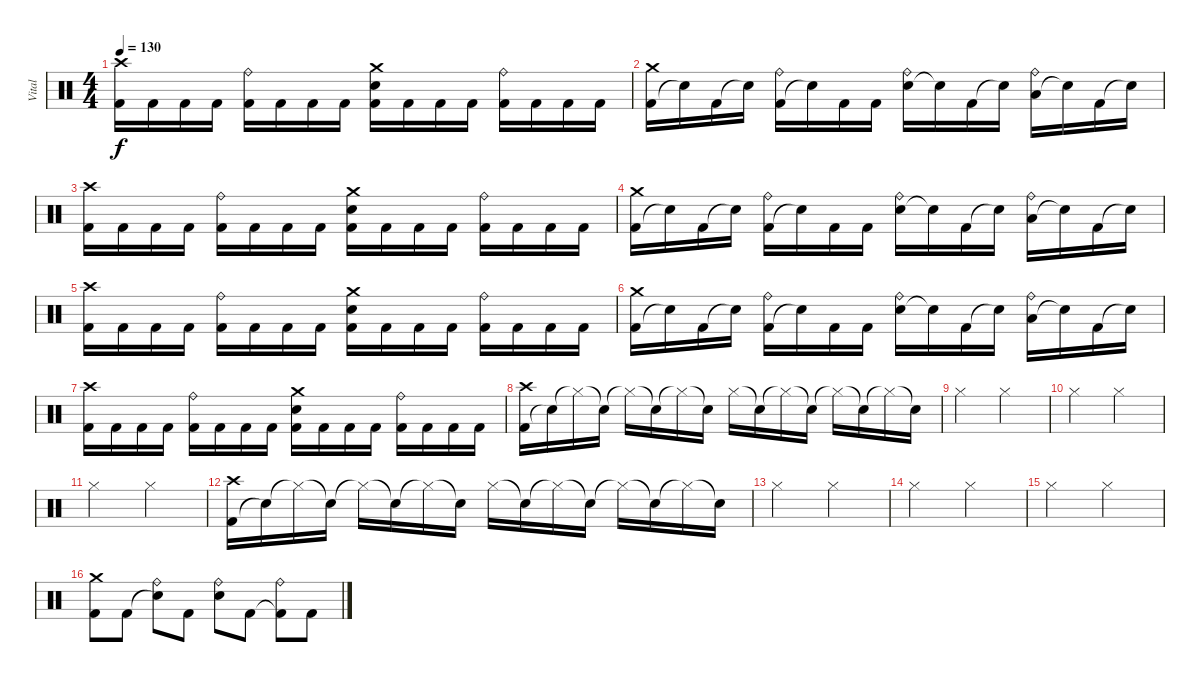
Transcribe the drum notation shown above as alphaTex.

\track ("Vital" "Vital") {instrument percussion}
\staff {score}
\articulation defaults
\ts (4 4)
\tempo 130
\clef neutral
\ks c
("Kick (hit) 2" "Crash high (hit)").16{dy f} "Kick (hit) 2".16 "Kick (hit) 2".16 "Kick (hit) 2".16 ("Kick (hit) 2" "Ride (bell)").16 "Kick (hit) 2".16 "Kick (hit) 2".16 "Kick (hit) 2".16 ("Kick (hit) 2" "Snare (hit) 2" "Crash medium (hit)").16 "Kick (hit) 2".16 "Kick (hit) 2".16 "Kick (hit) 2".16 ("Kick (hit) 2" "Ride (bell)").16 "Kick (hit) 2".16 "Kick (hit) 2".16 "Kick (hit) 2".16 |
("Kick (hit) 2" "Crash medium (hit)").16 "Snare (hit)"{t}.16 "Kick (hit) 2".16 "Snare (hit)"{t}.16 ("Kick (hit) 2" "Ride (bell)").16 "Snare (hit)"{t}.16 "Kick (hit) 2".16 "Kick (hit) 2".16 ("Snare (hit) 2" "Ride (bell)").16 "Snare (hit)"{t}.16 "Kick (hit) 2".16 "Snare (hit)"{t}.16 ("Low Floor Tom (hit)" "Ride (bell)").16 "Snare (hit)"{t}.16 "Kick (hit) 2".16 "Snare (hit)"{t}.16 |
("Kick (hit) 2" "Crash high (hit)").16 "Kick (hit) 2".16 "Kick (hit) 2".16 "Kick (hit) 2".16 ("Kick (hit) 2" "Ride (bell)").16 "Kick (hit) 2".16 "Kick (hit) 2".16 "Kick (hit) 2".16 ("Kick (hit) 2" "Snare (hit) 2" "Crash medium (hit)").16 "Kick (hit) 2".16 "Kick (hit) 2".16 "Kick (hit) 2".16 ("Kick (hit) 2" "Ride (bell)").16 "Kick (hit) 2".16 "Kick (hit) 2".16 "Kick (hit) 2".16 |
("Kick (hit) 2" "Crash medium (hit)").16 "Snare (hit)"{t}.16 "Kick (hit) 2".16 "Snare (hit)"{t}.16 ("Kick (hit) 2" "Ride (bell)").16 "Snare (hit)"{t}.16 "Kick (hit) 2".16 "Kick (hit) 2".16 ("Snare (hit) 2" "Ride (bell)").16 "Snare (hit)"{t}.16 "Kick (hit) 2".16 "Snare (hit)"{t}.16 ("Low Floor Tom (hit)" "Ride (bell)").16 "Snare (hit)"{t}.16 "Kick (hit) 2".16 "Snare (hit)"{t}.16 |
("Kick (hit) 2" "Crash high (hit)").16 "Kick (hit) 2".16 "Kick (hit) 2".16 "Kick (hit) 2".16 ("Kick (hit) 2" "Ride (bell)").16 "Kick (hit) 2".16 "Kick (hit) 2".16 "Kick (hit) 2".16 ("Kick (hit) 2" "Snare (hit) 2" "Crash medium (hit)").16 "Kick (hit) 2".16 "Kick (hit) 2".16 "Kick (hit) 2".16 ("Kick (hit) 2" "Ride (bell)").16 "Kick (hit) 2".16 "Kick (hit) 2".16 "Kick (hit) 2".16 |
("Kick (hit) 2" "Crash medium (hit)").16 "Snare (hit)"{t}.16 "Kick (hit) 2".16 "Snare (hit)"{t}.16 ("Kick (hit) 2" "Ride (bell)").16 "Snare (hit)"{t}.16 "Kick (hit) 2".16 "Kick (hit) 2".16 ("Snare (hit) 2" "Ride (bell)").16 "Snare (hit)"{t}.16 "Kick (hit) 2".16 "Snare (hit)"{t}.16 ("Low Floor Tom (hit)" "Ride (bell)").16 "Snare (hit)"{t}.16 "Kick (hit) 2".16 "Snare (hit)"{t}.16 |
("Kick (hit) 2" "Crash high (hit)").16 "Kick (hit) 2".16 "Kick (hit) 2".16 "Kick (hit) 2".16 ("Kick (hit) 2" "Ride (bell)").16 "Kick (hit) 2".16 "Kick (hit) 2".16 "Kick (hit) 2".16 ("Kick (hit) 2" "Snare (hit) 2" "Crash medium (hit)").16 "Kick (hit) 2".16 "Kick (hit) 2".16 "Kick (hit) 2".16 ("Kick (hit) 2" "Ride (bell)").16 "Kick (hit) 2".16 "Kick (hit) 2".16 "Kick (hit) 2".16 |
("Kick (hit) 2" "Crash high (hit)").16 "Snare (hit)"{t}.16 "Hi-Hat (closed)"{t}.16 "Snare (hit)"{t}.16 "Hi-Hat (closed)"{t}.16 "Snare (hit)"{t}.16 "Hi-Hat (closed)"{t}.16 "Snare (hit)"{t}.16 "Hi-Hat (closed)".16 "Snare (hit)"{t}.16 "Hi-Hat (closed)"{t}.16 "Snare (hit)"{t}.16 "Hi-Hat (closed)"{t}.16 "Snare (hit)"{t}.16 "Hi-Hat (closed)"{t}.16 "Snare (hit)"{t}.16 |
"Hi-Hat (closed)".2 "Hi-Hat (closed)".2 |
"Hi-Hat (closed)".2 "Hi-Hat (closed)".2 |
"Hi-Hat (closed)".2 "Hi-Hat (closed)".2 |
("Kick (hit) 2" "Crash high (hit)").16 "Snare (hit)"{t}.16 "Hi-Hat (closed)"{t}.16 "Snare (hit)"{t}.16 "Hi-Hat (closed)"{t}.16 "Snare (hit)"{t}.16 "Hi-Hat (closed)"{t}.16 "Snare (hit)"{t}.16 "Hi-Hat (closed)".16 "Snare (hit)"{t}.16 "Hi-Hat (closed)"{t}.16 "Snare (hit)"{t}.16 "Hi-Hat (closed)"{t}.16 "Snare (hit)"{t}.16 "Hi-Hat (closed)"{t}.16 "Snare (hit)"{t}.16 |
"Hi-Hat (closed)".2 "Hi-Hat (closed)".2 |
"Hi-Hat (closed)".2 "Hi-Hat (closed)".2 |
"Hi-Hat (closed)".2 "Hi-Hat (closed)".2 |
("Kick (hit) 2" "Crash medium (hit)").8 "Kick (hit) 2".8 ("Snare (hit)"{t} "Ride (bell)").8 "Kick (hit) 2".8 ("Snare (hit) 2" "Ride (bell)").8 "Kick (hit) 2".8 ("Kick (hit) 2"{t} "Ride (bell)").8 "Kick (hit) 2".8
